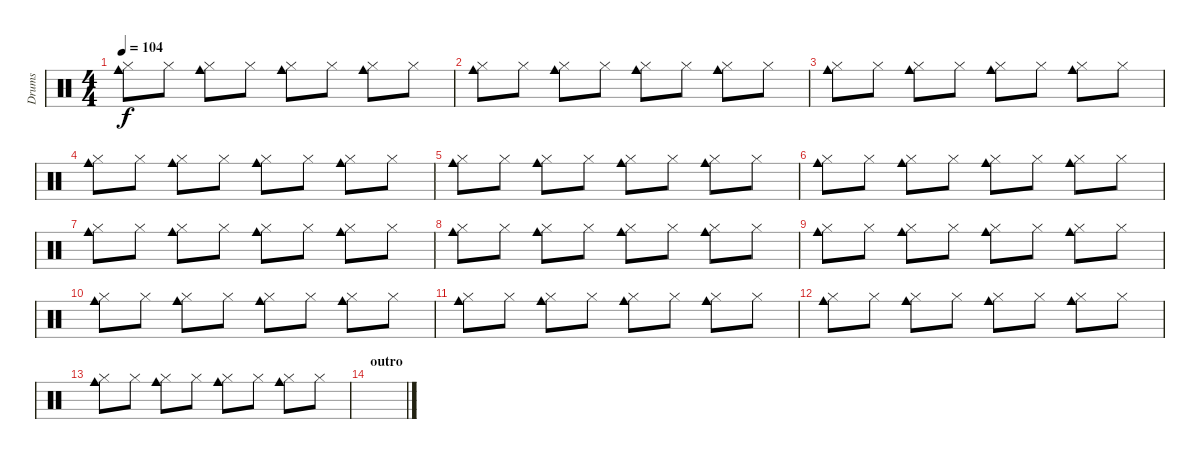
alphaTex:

\track ("Drums" "Drums") {instrument percussion}
\staff {score}
\articulation defaults
\ts (4 4)
\tempo 104
\clef neutral
\ks c
("Cowbell medium (hit)" "Hi-Hat (closed)").8{dy f} "Hi-Hat (closed)".8 ("Cowbell medium (hit)" "Hi-Hat (closed)").8 "Hi-Hat (closed)".8 ("Cowbell medium (hit)" "Hi-Hat (closed)").8 "Hi-Hat (closed)".8 ("Cowbell medium (hit)" "Hi-Hat (closed)").8 "Hi-Hat (closed)".8 |
("Cowbell medium (hit)" "Hi-Hat (closed)").8 "Hi-Hat (closed)".8 ("Cowbell medium (hit)" "Hi-Hat (closed)").8 "Hi-Hat (closed)".8 ("Cowbell medium (hit)" "Hi-Hat (closed)").8 "Hi-Hat (closed)".8 ("Cowbell medium (hit)" "Hi-Hat (closed)").8 "Hi-Hat (closed)".8 |
("Cowbell medium (hit)" "Hi-Hat (closed)").8 "Hi-Hat (closed)".8 ("Cowbell medium (hit)" "Hi-Hat (closed)").8 "Hi-Hat (closed)".8 ("Cowbell medium (hit)" "Hi-Hat (closed)").8 "Hi-Hat (closed)".8 ("Cowbell medium (hit)" "Hi-Hat (closed)").8 "Hi-Hat (closed)".8 |
("Cowbell medium (hit)" "Hi-Hat (closed)").8 "Hi-Hat (closed)".8 ("Cowbell medium (hit)" "Hi-Hat (closed)").8 "Hi-Hat (closed)".8 ("Cowbell medium (hit)" "Hi-Hat (closed)").8 "Hi-Hat (closed)".8 ("Cowbell medium (hit)" "Hi-Hat (closed)").8 "Hi-Hat (closed)".8 |
("Cowbell medium (hit)" "Hi-Hat (closed)").8 "Hi-Hat (closed)".8 ("Cowbell medium (hit)" "Hi-Hat (closed)").8 "Hi-Hat (closed)".8 ("Cowbell medium (hit)" "Hi-Hat (closed)").8 "Hi-Hat (closed)".8 ("Cowbell medium (hit)" "Hi-Hat (closed)").8 "Hi-Hat (closed)".8 |
("Cowbell medium (hit)" "Hi-Hat (closed)").8 "Hi-Hat (closed)".8 ("Cowbell medium (hit)" "Hi-Hat (closed)").8 "Hi-Hat (closed)".8 ("Cowbell medium (hit)" "Hi-Hat (closed)").8 "Hi-Hat (closed)".8 ("Cowbell medium (hit)" "Hi-Hat (closed)").8 "Hi-Hat (closed)".8 |
("Cowbell medium (hit)" "Hi-Hat (closed)").8 "Hi-Hat (closed)".8 ("Cowbell medium (hit)" "Hi-Hat (closed)").8 "Hi-Hat (closed)".8 ("Cowbell medium (hit)" "Hi-Hat (closed)").8 "Hi-Hat (closed)".8 ("Cowbell medium (hit)" "Hi-Hat (closed)").8 "Hi-Hat (closed)".8 |
("Cowbell medium (hit)" "Hi-Hat (closed)").8 "Hi-Hat (closed)".8 ("Cowbell medium (hit)" "Hi-Hat (closed)").8 "Hi-Hat (closed)".8 ("Cowbell medium (hit)" "Hi-Hat (closed)").8 "Hi-Hat (closed)".8 ("Cowbell medium (hit)" "Hi-Hat (closed)").8 "Hi-Hat (closed)".8 |
("Cowbell medium (hit)" "Hi-Hat (closed)").8 "Hi-Hat (closed)".8 ("Cowbell medium (hit)" "Hi-Hat (closed)").8 "Hi-Hat (closed)".8 ("Cowbell medium (hit)" "Hi-Hat (closed)").8 "Hi-Hat (closed)".8 ("Cowbell medium (hit)" "Hi-Hat (closed)").8 "Hi-Hat (closed)".8 |
("Cowbell medium (hit)" "Hi-Hat (closed)").8 "Hi-Hat (closed)".8 ("Cowbell medium (hit)" "Hi-Hat (closed)").8 "Hi-Hat (closed)".8 ("Cowbell medium (hit)" "Hi-Hat (closed)").8 "Hi-Hat (closed)".8 ("Cowbell medium (hit)" "Hi-Hat (closed)").8 "Hi-Hat (closed)".8 |
("Cowbell medium (hit)" "Hi-Hat (closed)").8 "Hi-Hat (closed)".8 ("Cowbell medium (hit)" "Hi-Hat (closed)").8 "Hi-Hat (closed)".8 ("Cowbell medium (hit)" "Hi-Hat (closed)").8 "Hi-Hat (closed)".8 ("Cowbell medium (hit)" "Hi-Hat (closed)").8 "Hi-Hat (closed)".8 |
("Cowbell medium (hit)" "Hi-Hat (closed)").8 "Hi-Hat (closed)".8 ("Cowbell medium (hit)" "Hi-Hat (closed)").8 "Hi-Hat (closed)".8 ("Cowbell medium (hit)" "Hi-Hat (closed)").8 "Hi-Hat (closed)".8 ("Cowbell medium (hit)" "Hi-Hat (closed)").8 "Hi-Hat (closed)".8 |
("Cowbell medium (hit)" "Hi-Hat (closed)").8 "Hi-Hat (closed)".8 ("Cowbell medium (hit)" "Hi-Hat (closed)").8 "Hi-Hat (closed)".8 ("Cowbell medium (hit)" "Hi-Hat (closed)").8 "Hi-Hat (closed)".8 ("Cowbell medium (hit)" "Hi-Hat (closed)").8 "Hi-Hat (closed)".8 |
\section ("" "outro")
